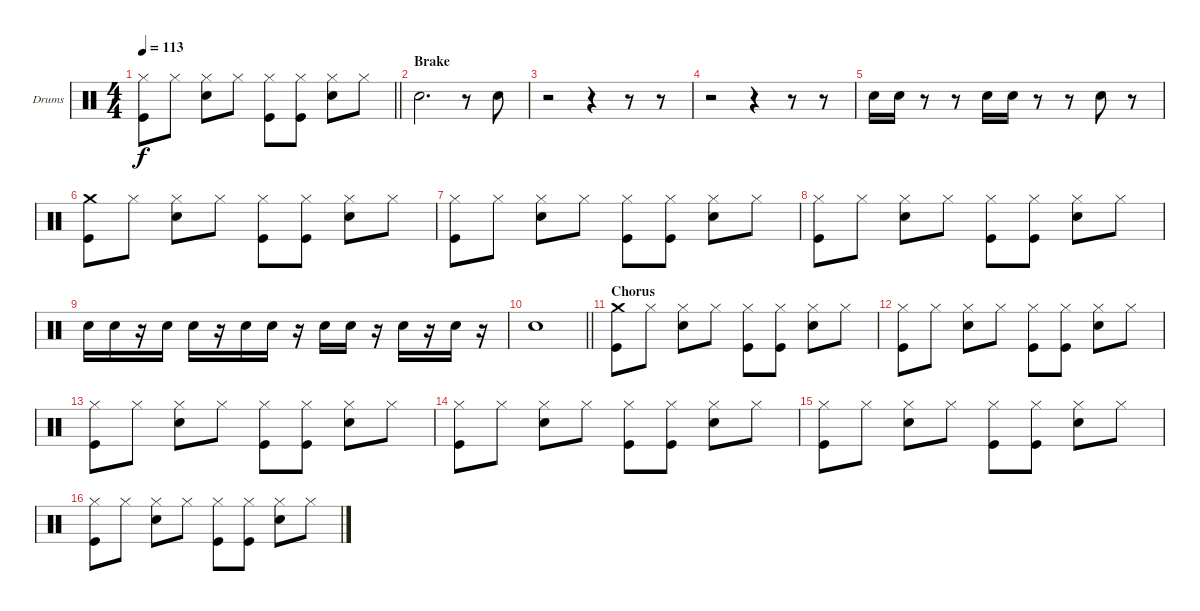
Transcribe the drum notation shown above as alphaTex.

\bracketExtendMode groupsimilarinstruments
\firstSystemTrackNameOrientation horizontal
\otherSystemsTrackNameOrientation horizontal
\track ("Drumkit" "Drums") {instrument percussion}
\staff {score}
\articulation defaults
\ts (4 4)
\tempo 113
\clef neutral
\barLineRight lightlight
\ks c
("Hi-Hat (closed)" "Kick (hit)").8{dy f} "Hi-Hat (closed)".8 ("Hi-Hat (closed)" "Snare (hit) 2").8 "Hi-Hat (closed)".8 ("Hi-Hat (closed)" "Kick (hit)").8 ("Hi-Hat (closed)" "Kick (hit)").8 ("Hi-Hat (closed)" "Snare (hit) 2").8 "Hi-Hat (closed)".8 |
\section ("" "Brake")
"Snare (hit) 2".2{d} r.8 "Snare (hit) 2".8 |
r.2 r.4 r.8 r.8 |
r.2 r.4 r.8 r.8 |
"Snare (hit) 2".16 "Snare (hit) 2".16 r.8 r.8 "Snare (hit) 2".16 "Snare (hit) 2".16 r.8 r.8 "Snare (hit) 2".8 r.8 |
("Crash medium (hit)" "Kick (hit)").8 "Hi-Hat (closed)".8 ("Hi-Hat (closed)" "Snare (hit) 2").8 "Hi-Hat (closed)".8 ("Hi-Hat (closed)" "Kick (hit)").8 ("Hi-Hat (closed)" "Kick (hit)").8 ("Hi-Hat (closed)" "Snare (hit) 2").8 "Hi-Hat (closed)".8 |
("Hi-Hat (closed)" "Kick (hit)").8 "Hi-Hat (closed)".8 ("Hi-Hat (closed)" "Snare (hit) 2").8 "Hi-Hat (closed)".8 ("Hi-Hat (closed)" "Kick (hit)").8 ("Hi-Hat (closed)" "Kick (hit)").8 ("Hi-Hat (closed)" "Snare (hit) 2").8 "Hi-Hat (closed)".8 |
("Hi-Hat (closed)" "Kick (hit)").8 "Hi-Hat (closed)".8 ("Hi-Hat (closed)" "Snare (hit) 2").8 "Hi-Hat (closed)".8 ("Hi-Hat (closed)" "Kick (hit)").8 ("Hi-Hat (closed)" "Kick (hit)").8 ("Hi-Hat (closed)" "Snare (hit) 2").8 "Hi-Hat (closed)".8 |
"Snare (hit) 2".16 "Snare (hit) 2".16 r.16 "Snare (hit) 2".16 "Snare (hit) 2".16 r.16 "Snare (hit) 2".16 "Snare (hit) 2".16 r.16 "Snare (hit) 2".16 "Snare (hit) 2".16 r.16 "Snare (hit) 2".16 r.16 "Snare (hit) 2".16 r.16 |
\barLineRight lightlight "Snare (hit) 2".1
|
\section ("" "Chorus")
("Crash medium (hit)" "Kick (hit)").8 "Hi-Hat (closed)".8 ("Hi-Hat (closed)" "Snare (hit) 2").8 "Hi-Hat (closed)".8 ("Hi-Hat (closed)" "Kick (hit)").8 ("Hi-Hat (closed)" "Kick (hit)").8 ("Hi-Hat (closed)" "Snare (hit) 2").8 "Hi-Hat (closed)".8 |
("Hi-Hat (closed)" "Kick (hit)").8 "Hi-Hat (closed)".8 ("Hi-Hat (closed)" "Snare (hit) 2").8 "Hi-Hat (closed)".8 ("Hi-Hat (closed)" "Kick (hit)").8 ("Hi-Hat (closed)" "Kick (hit)").8 ("Hi-Hat (closed)" "Snare (hit) 2").8 "Hi-Hat (closed)".8 |
("Hi-Hat (closed)" "Kick (hit)").8 "Hi-Hat (closed)".8 ("Hi-Hat (closed)" "Snare (hit) 2").8 "Hi-Hat (closed)".8 ("Hi-Hat (closed)" "Kick (hit)").8 ("Hi-Hat (closed)" "Kick (hit)").8 ("Hi-Hat (closed)" "Snare (hit) 2").8 "Hi-Hat (closed)".8 |
("Hi-Hat (closed)" "Kick (hit)").8 "Hi-Hat (closed)".8 ("Hi-Hat (closed)" "Snare (hit) 2").8 "Hi-Hat (closed)".8 ("Hi-Hat (closed)" "Kick (hit)").8 ("Hi-Hat (closed)" "Kick (hit)").8 ("Hi-Hat (closed)" "Snare (hit) 2").8 "Hi-Hat (closed)".8 |
("Hi-Hat (closed)" "Kick (hit)").8 "Hi-Hat (closed)".8 ("Hi-Hat (closed)" "Snare (hit) 2").8 "Hi-Hat (closed)".8 ("Hi-Hat (closed)" "Kick (hit)").8 ("Hi-Hat (closed)" "Kick (hit)").8 ("Hi-Hat (closed)" "Snare (hit) 2").8 "Hi-Hat (closed)".8 |
("Hi-Hat (closed)" "Kick (hit)").8 "Hi-Hat (closed)".8 ("Hi-Hat (closed)" "Snare (hit) 2").8 "Hi-Hat (closed)".8 ("Hi-Hat (closed)" "Kick (hit)").8 ("Hi-Hat (closed)" "Kick (hit)").8 ("Hi-Hat (closed)" "Snare (hit) 2").8 "Hi-Hat (closed)".8
